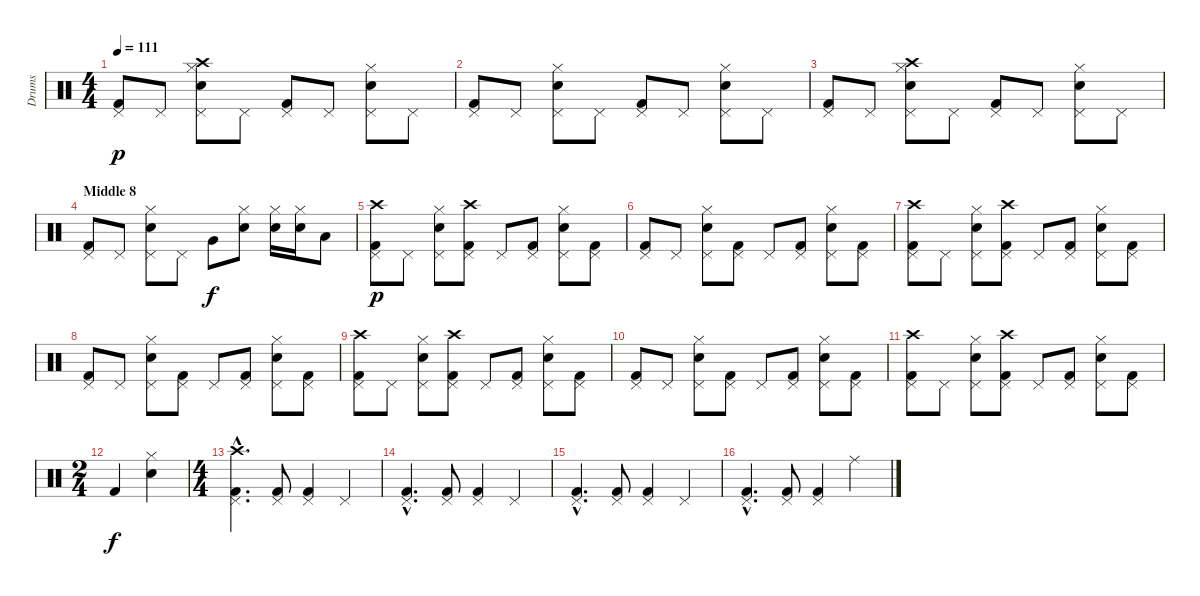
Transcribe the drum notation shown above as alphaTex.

\track ("Drums" "Drums") {instrument percussion}
\staff {score}
\articulation defaults
\ts (4 4)
\tempo 111
\clef neutral
\ks c
("Pedal Hi-Hat (hit)" "Kick (hit) 2").8{dy p} "Pedal Hi-Hat (hit)".8 ("Pedal Hi-Hat (hit)" "Hand Clap (hit)" "Hi-Hat (closed)" "Crash high (hit)").8 "Pedal Hi-Hat (hit)".8 ("Pedal Hi-Hat (hit)" "Kick (hit) 2").8 "Pedal Hi-Hat (hit)".8 ("Pedal Hi-Hat (hit)" "Hand Clap (hit)" "Hi-Hat (closed)").8 "Pedal Hi-Hat (hit)".8 |
("Pedal Hi-Hat (hit)" "Kick (hit) 2").8 "Pedal Hi-Hat (hit)".8 ("Pedal Hi-Hat (hit)" "Hand Clap (hit)" "Hi-Hat (closed)").8 "Pedal Hi-Hat (hit)".8 ("Pedal Hi-Hat (hit)" "Kick (hit) 2").8 "Pedal Hi-Hat (hit)".8 ("Pedal Hi-Hat (hit)" "Hand Clap (hit)" "Hi-Hat (closed)").8 "Pedal Hi-Hat (hit)".8 |
("Pedal Hi-Hat (hit)" "Kick (hit) 2").8 "Pedal Hi-Hat (hit)".8 ("Pedal Hi-Hat (hit)" "Hand Clap (hit)" "Hi-Hat (closed)" "Crash high (hit)").8 "Pedal Hi-Hat (hit)".8 ("Pedal Hi-Hat (hit)" "Kick (hit) 2").8 "Pedal Hi-Hat (hit)".8 ("Pedal Hi-Hat (hit)" "Hand Clap (hit)" "Hi-Hat (closed)").8 "Pedal Hi-Hat (hit)".8 |
\section ("" "Middle 8")
("Pedal Hi-Hat (hit)" "Kick (hit) 2").8 "Pedal Hi-Hat (hit)".8 ("Pedal Hi-Hat (hit)" "Hand Clap (hit)" "Hi-Hat (closed)").8 "Pedal Hi-Hat (hit)".8 "Very Low Tom (hit)".8{dy f} ("Hand Clap (hit)" "Hi-Hat (closed)").8 ("Hand Clap (hit)" "Hi-Hat (closed)").16 ("Hand Clap (hit)" "Hi-Hat (closed)").16 "Low Floor Tom (hit)".8 |
("Pedal Hi-Hat (hit)" "Kick (hit) 2" "Crash high (hit)").8{dy p} "Pedal Hi-Hat (hit)".8 ("Pedal Hi-Hat (hit)" "Hand Clap (hit)" "Hi-Hat (closed)").8 ("Pedal Hi-Hat (hit)" "Kick (hit) 2" "Crash high (hit)").8 "Pedal Hi-Hat (hit)".8 ("Pedal Hi-Hat (hit)" "Kick (hit) 2").8 ("Pedal Hi-Hat (hit)" "Hand Clap (hit)" "Hi-Hat (closed)").8 ("Pedal Hi-Hat (hit)" "Kick (hit) 2").8 |
("Pedal Hi-Hat (hit)" "Kick (hit) 2").8 "Pedal Hi-Hat (hit)".8 ("Pedal Hi-Hat (hit)" "Hand Clap (hit)" "Hi-Hat (closed)").8 ("Pedal Hi-Hat (hit)" "Kick (hit) 2").8 "Pedal Hi-Hat (hit)".8 ("Pedal Hi-Hat (hit)" "Kick (hit) 2").8 ("Pedal Hi-Hat (hit)" "Hand Clap (hit)" "Hi-Hat (closed)").8 ("Pedal Hi-Hat (hit)" "Kick (hit) 2").8 |
("Pedal Hi-Hat (hit)" "Kick (hit) 2" "Crash high (hit)").8 "Pedal Hi-Hat (hit)".8 ("Pedal Hi-Hat (hit)" "Hand Clap (hit)" "Hi-Hat (closed)").8 ("Pedal Hi-Hat (hit)" "Kick (hit) 2" "Crash high (hit)").8 "Pedal Hi-Hat (hit)".8 ("Pedal Hi-Hat (hit)" "Kick (hit) 2").8 ("Pedal Hi-Hat (hit)" "Hand Clap (hit)" "Hi-Hat (closed)").8 ("Pedal Hi-Hat (hit)" "Kick (hit) 2").8 |
("Pedal Hi-Hat (hit)" "Kick (hit) 2").8 "Pedal Hi-Hat (hit)".8 ("Pedal Hi-Hat (hit)" "Hand Clap (hit)" "Hi-Hat (closed)").8 ("Pedal Hi-Hat (hit)" "Kick (hit) 2").8 "Pedal Hi-Hat (hit)".8 ("Pedal Hi-Hat (hit)" "Kick (hit) 2").8 ("Pedal Hi-Hat (hit)" "Hand Clap (hit)" "Hi-Hat (closed)").8 ("Pedal Hi-Hat (hit)" "Kick (hit) 2").8 |
("Pedal Hi-Hat (hit)" "Kick (hit) 2" "Crash high (hit)").8 "Pedal Hi-Hat (hit)".8 ("Pedal Hi-Hat (hit)" "Hand Clap (hit)" "Hi-Hat (closed)").8 ("Pedal Hi-Hat (hit)" "Kick (hit) 2" "Crash high (hit)").8 "Pedal Hi-Hat (hit)".8 ("Pedal Hi-Hat (hit)" "Kick (hit) 2").8 ("Pedal Hi-Hat (hit)" "Hand Clap (hit)" "Hi-Hat (closed)").8 ("Pedal Hi-Hat (hit)" "Kick (hit) 2").8 |
("Pedal Hi-Hat (hit)" "Kick (hit) 2").8 "Pedal Hi-Hat (hit)".8 ("Pedal Hi-Hat (hit)" "Hand Clap (hit)" "Hi-Hat (closed)").8 ("Pedal Hi-Hat (hit)" "Kick (hit) 2").8 "Pedal Hi-Hat (hit)".8 ("Pedal Hi-Hat (hit)" "Kick (hit) 2").8 ("Pedal Hi-Hat (hit)" "Hand Clap (hit)" "Hi-Hat (closed)").8 ("Pedal Hi-Hat (hit)" "Kick (hit) 2").8 |
("Pedal Hi-Hat (hit)" "Kick (hit) 2" "Crash high (hit)").8 "Pedal Hi-Hat (hit)".8 ("Pedal Hi-Hat (hit)" "Hand Clap (hit)" "Hi-Hat (closed)").8 ("Pedal Hi-Hat (hit)" "Kick (hit) 2" "Crash high (hit)").8 "Pedal Hi-Hat (hit)".8 ("Pedal Hi-Hat (hit)" "Kick (hit) 2").8 ("Pedal Hi-Hat (hit)" "Hand Clap (hit)" "Hi-Hat (closed)").8 ("Pedal Hi-Hat (hit)" "Kick (hit) 2").8 |
\ts (2 4)
"Kick (hit) 2".4{dy f} ("Hand Clap (hit)" "Hi-Hat (closed)").4 |
\ts (4 4)
("Pedal Hi-Hat (hit)"{hac} "Kick (hit) 2"{hac} "Crash high (hit)"{hac}).4{d} ("Pedal Hi-Hat (hit)" "Kick (hit) 2").8 ("Pedal Hi-Hat (hit)" "Kick (hit) 2").4 "Pedal Hi-Hat (hit)".4 |
("Pedal Hi-Hat (hit)"{hac} "Kick (hit) 2"{hac}).4{d} ("Pedal Hi-Hat (hit)" "Kick (hit) 2").8 ("Pedal Hi-Hat (hit)" "Kick (hit) 2").4 "Pedal Hi-Hat (hit)".4 |
("Pedal Hi-Hat (hit)"{hac} "Kick (hit) 2"{hac}).4{d} ("Pedal Hi-Hat (hit)" "Kick (hit) 2").8 ("Pedal Hi-Hat (hit)" "Kick (hit) 2").4 "Pedal Hi-Hat (hit)".4 |
("Pedal Hi-Hat (hit)"{hac} "Kick (hit) 2"{hac}).4{d} ("Pedal Hi-Hat (hit)" "Kick (hit) 2").8 ("Pedal Hi-Hat (hit)" "Kick (hit) 2").4 "Ride (middle)".4
